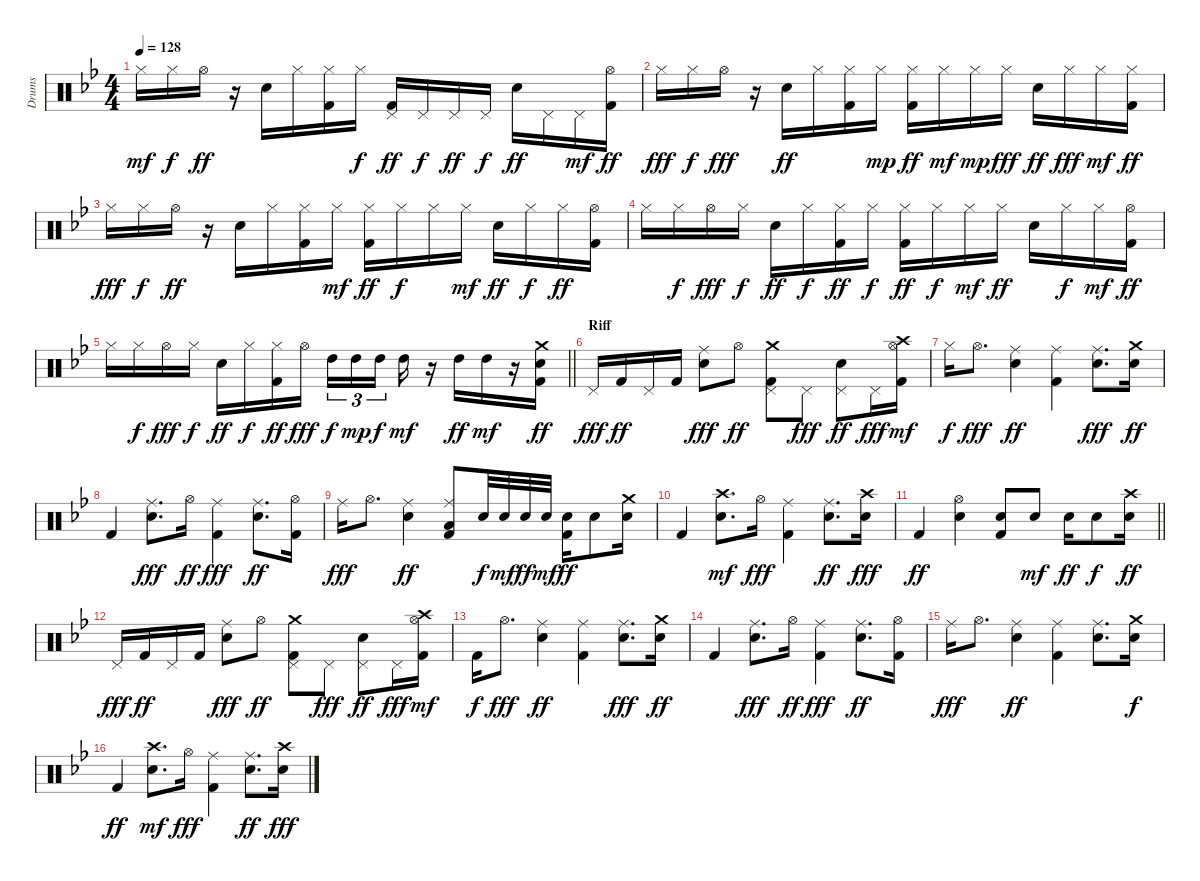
\track ("Drums" "Drums") {instrument percussion}
\staff {score}
\articulation defaults
\ts (4 4)
\tempo 128
\clef neutral
\ks gminor "Hi-Hat (closed)".16{dy mf} "Hi-Hat (closed)".16{dy f} "Hi-Hat (open)".16{dy ff}
r.16 "Snare (hit) 2".16 "Hi-Hat (closed)".16 ("Hi-Hat (closed)" "Kick (hit) 2").16 "Hi-Hat (closed)".16{dy f} ("Pedal Hi-Hat (hit)" "Kick (hit) 2").16{dy ff} "Pedal Hi-Hat (hit)".16{dy f} "Pedal Hi-Hat (hit)".16{dy ff} "Pedal Hi-Hat (hit)".16{dy f} "Snare (hit) 2".16{dy ff} "Pedal Hi-Hat (hit)".16 "Pedal Hi-Hat (hit)".16{dy mf} ("Hi-Hat (open)" "Kick (hit) 2").16{dy ff} |
"Hi-Hat (closed)".16{dy fff} "Hi-Hat (closed)".16{dy f} "Hi-Hat (open)".16{dy fff} r.16 "Snare (hit) 2".16{dy ff} "Hi-Hat (closed)".16 ("Hi-Hat (closed)" "Kick (hit) 2").16 "Hi-Hat (closed)".16{dy mp} ("Hi-Hat (closed)" "Kick (hit) 2").16{dy ff} "Hi-Hat (closed)".16{dy mf} "Hi-Hat (closed)".16{dy mp} "Hi-Hat (closed)".16{dy fff} "Snare (hit) 2".16{dy ff} "Hi-Hat (closed)".16{dy fff} "Hi-Hat (closed)".16{dy mf} ("Hi-Hat (closed)" "Kick (hit) 2").16{dy ff} |
"Hi-Hat (closed)".16{dy fff} "Hi-Hat (closed)".16{dy f} "Hi-Hat (open)".16{dy ff} r.16 "Snare (hit) 2".16 "Hi-Hat (closed)".16 ("Hi-Hat (closed)" "Kick (hit) 2").16 "Hi-Hat (closed)".16{dy mf} ("Hi-Hat (closed)" "Kick (hit) 2").16{dy ff} "Hi-Hat (closed)".16{dy f} "Hi-Hat (closed)".16 "Hi-Hat (closed)".16{dy mf} "Snare (hit) 2".16{dy ff} "Hi-Hat (closed)".16{dy f} "Hi-Hat (closed)".16{dy ff} ("Hi-Hat (open)" "Kick (hit) 2").16 |
"Hi-Hat (closed)".16 "Hi-Hat (closed)".16{dy f} "Hi-Hat (open)".16{dy fff} "Hi-Hat (closed)".16{dy f} "Snare (hit) 2".16{dy ff} "Hi-Hat (closed)".16{dy f} ("Hi-Hat (closed)" "Kick (hit) 2").16{dy ff} "Hi-Hat (closed)".16{dy f} ("Hi-Hat (closed)" "Kick (hit) 2").16{dy ff} "Hi-Hat (closed)".16{dy f} "Hi-Hat (closed)".16{dy mf} "Hi-Hat (closed)".16{dy ff} "Snare (hit) 2".16 "Hi-Hat (closed)".16{dy f} "Hi-Hat (closed)".16{dy mf} ("Hi-Hat (open)" "Kick (hit) 2").16{dy ff} |
\barLineRight lightlight "Hi-Hat (closed)".16 "Hi-Hat (closed)".16{dy f} "Hi-Hat (open)".16{dy fff} "Hi-Hat (closed)".16{dy f} "Snare (hit) 2".16{dy ff} "Hi-Hat (closed)".16{dy f}
("Hi-Hat (closed)" "Kick (hit) 2").16{dy ff} "Hi-Hat (open)".16{dy fff} "High Tom (hit)".16{tu (3 2) dy f} "High Tom (hit)".16{tu (3 2) dy mp} "High Tom (hit)".16{tu (3 2) dy f beam splitsecondary} "High Tom (hit)".16{dy mf} r.16 "High Tom (hit)".16{dy ff} "High Tom (hit)".16{dy mf} r.16 ("Snare (hit) 2" "Kick (hit) 2" "Crash medium (hit)").16{dy ff} |
\section ("" "Riff")
"Pedal Hi-Hat (hit)".16{dy fff} "Kick (hit) 2".16{dy ff} "Pedal Hi-Hat (hit)".16 "Kick (hit) 2".16 ("Snare (hit) 2" "Ride (middle)").8{dy fff} "Hi-Hat (open)".8{dy ff} ("Crash medium (hit)" "Kick (hit) 2" "Pedal Hi-Hat (hit)").8 "Pedal Hi-Hat (hit)".8{dy fff} ("Pedal Hi-Hat (hit)" "Snare (hit) 2").8{dy ff} "Pedal Hi-Hat (hit)".16{dy fff} ("Hi-Hat (open)" "Kick (hit) 2" "Crash high (hit)").16{dy mf} |
"Hi-Hat (closed)".16{dy f} "Hi-Hat (open)".8{d dy fff} ("Snare (hit) 2" "Ride (middle)").4{dy ff} ("Kick (hit) 2" "Ride (middle)").4 ("Snare (hit) 2" "Ride (middle)").8{d dy fff} ("Snare (hit) 2" "Crash medium (hit)").16{dy ff} |
"Kick (hit) 2".4 ("Snare (hit) 2" "Ride (middle)").8{d dy fff} "Hi-Hat (open)".16{dy ff} ("Kick (hit) 2" "Ride (middle)").4{dy fff} ("Snare (hit) 2" "Ride (middle)").8{d dy ff} ("Kick (hit) 2" "Hi-Hat (open)").16 |
"Ride (middle)".16{dy fff} "Hi-Hat (open)".8{d} ("Ride (middle)" "Snare (hit) 2").4{dy ff} ("Ride (middle)" "Kick (hit) 2" "Low Tom (hit)").8 "Snare (hit) 2".32{dy f} "Snare (hit) 2".32{dy mf} "Snare (hit) 2".32{dy ff} "Snare (hit) 2".32{dy mf} ("Kick (hit) 2" "Snare (hit) 2").16{dy ff} "Snare (hit) 2".8 ("Snare (hit) 2" "Crash medium (hit)").16 |
"Kick (hit) 2".4 ("Snare (hit) 2" "Crash high (hit)").8{d dy mf} "Hi-Hat (open)".16{dy fff} ("Kick (hit) 2" "Ride (middle)").4 ("Snare (hit) 2" "Ride (middle)").8{d dy ff} ("Snare (hit) 2" "Crash high (hit)").16{dy fff} |
\barLineRight lightlight "Kick (hit) 2".4{dy ff}
("Snare (hit) 2" "Hi-Hat (open)").4 ("Kick (hit) 2" "Snare (hit) 2").8 "Snare (hit) 2".8{dy mf} "Snare (hit) 2".16{dy ff} "Snare (hit) 2".8{dy f} ("Snare (hit) 2" "Crash high (hit)").16{dy ff} |
"Pedal Hi-Hat (hit)".16{dy fff} "Kick (hit) 2".16{dy ff} "Pedal Hi-Hat (hit)".16 "Kick (hit) 2".16 ("Snare (hit) 2" "Ride (middle)").8{dy fff} "Hi-Hat (open)".8{dy ff} ("Crash medium (hit)" "Kick (hit) 2" "Pedal Hi-Hat (hit)").8 "Pedal Hi-Hat (hit)".8{dy fff} ("Pedal Hi-Hat (hit)" "Snare (hit) 2").8{dy ff} "Pedal Hi-Hat (hit)".16{dy fff} ("Hi-Hat (open)" "Kick (hit) 2" "Crash high (hit)").16{dy mf} |
"Kick (hit) 2".16{dy f} "Hi-Hat (open)".8{d dy fff} ("Snare (hit) 2" "Ride (middle)").4{dy ff} ("Kick (hit) 2" "Ride (middle)").4 ("Snare (hit) 2" "Ride (middle)").8{d dy fff} ("Snare (hit) 2" "Crash medium (hit)").16{dy ff} |
"Kick (hit) 2".4 ("Snare (hit) 2" "Ride (middle)").8{d dy fff} "Hi-Hat (open)".16{dy ff} ("Kick (hit) 2" "Ride (middle)").4{dy fff} ("Snare (hit) 2" "Ride (middle)").8{d dy ff} ("Kick (hit) 2" "Hi-Hat (open)").16 |
"Ride (middle)".16{dy fff} "Hi-Hat (open)".8{d} ("Ride (middle)" "Snare (hit) 2").4{dy ff} ("Ride (middle)" "Kick (hit) 2").4 ("Ride (middle)" "Snare (hit) 2").8{d} ("Crash medium (hit)" "Snare (hit) 2").16{dy f} |
"Kick (hit) 2".4{dy ff} ("Snare (hit) 2" "Crash high (hit)").8{d dy mf} "Hi-Hat (open)".16{dy fff} ("Kick (hit) 2" "Ride (middle)").4 ("Snare (hit) 2" "Ride (middle)").8{d dy ff} ("Snare (hit) 2" "Crash high (hit)").16{dy fff}
